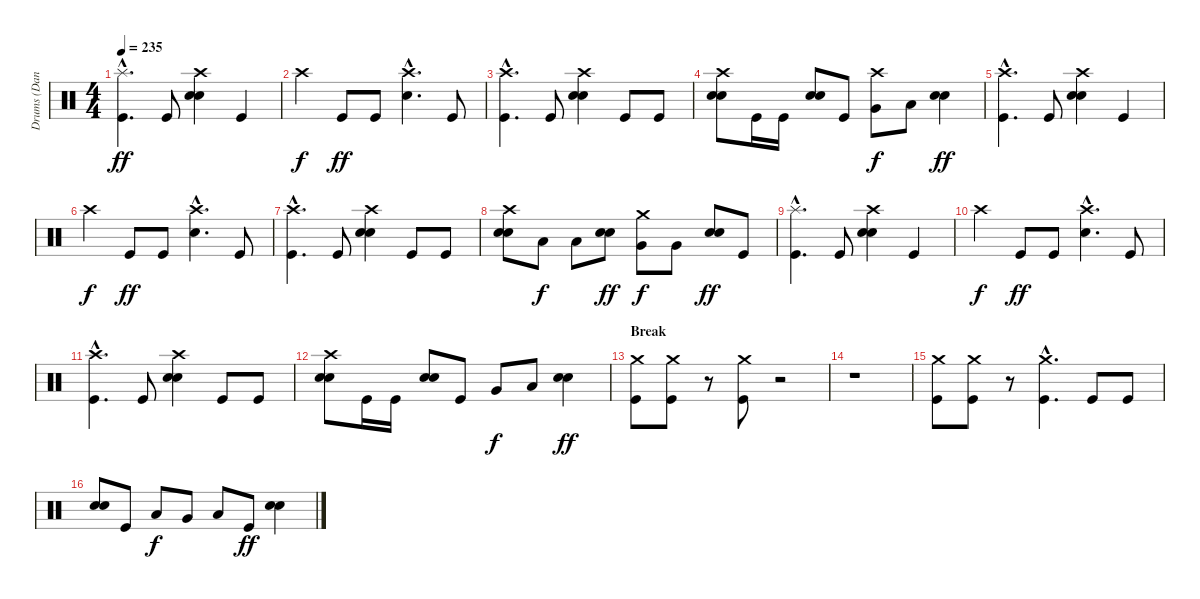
\track ("Drums (Dan)" "Drums (Dan") {instrument percussion}
\staff {score}
\articulation defaults
\ts (4 4)
\tempo 235
\clef neutral
\ks c
("Kick (hit)"{hac} "Splash (hit)"{hac}).4{d dy ff} "Kick (hit)".8 ("Electric Snare (hit)" "Electric Snare (hit)" "Crash high (hit)").4 "Kick (hit)".4 |
"Crash high (hit)".4{dy f} "Kick (hit)".8{dy ff} "Kick (hit)".8 ("Electric Snare (hit)"{hac} "Crash high (hit)"{hac}).4{d} "Kick (hit)".8 |
("Kick (hit)"{hac} "Crash high (hit)"{hac}).4{d} "Kick (hit)".8 ("Electric Snare (hit)" "Electric Snare (hit)" "Crash high (hit)").4 "Kick (hit)".8 "Kick (hit)".8 |
("Electric Snare (hit)" "Electric Snare (hit)" "Crash high (hit)").8 "Kick (hit)".16 "Kick (hit)".16 ("Electric Snare (hit)" "Electric Snare (hit)").8 "Kick (hit)".8 ("Very Low Tom (hit)" "Crash high (hit)").8{dy f} "Low Floor Tom (hit)".8 ("Electric Snare (hit)" "Electric Snare (hit)").4{dy ff} |
("Kick (hit)"{hac} "Crash high (hit)"{hac}).4{d} "Kick (hit)".8 ("Electric Snare (hit)" "Electric Snare (hit)" "Crash high (hit)").4 "Kick (hit)".4 |
"Crash high (hit)".4{dy f} "Kick (hit)".8{dy ff} "Kick (hit)".8 ("Electric Snare (hit)"{hac} "Crash high (hit)"{hac}).4{d} "Kick (hit)".8 |
("Kick (hit)"{hac} "Crash high (hit)"{hac}).4{d} "Kick (hit)".8 ("Electric Snare (hit)" "Electric Snare (hit)" "Crash high (hit)").4 "Kick (hit)".8 "Kick (hit)".8 |
("Electric Snare (hit)" "Electric Snare (hit)" "Crash high (hit)").8 "Low Tom (hit)".8{dy f} "Low Tom (hit)".8 ("Electric Snare (hit)" "Electric Snare (hit)").8{dy ff} ("Very Low Tom (hit)" "Crash medium (hit)").8{dy f} "Very Low Tom (hit)".8 ("Electric Snare (hit)" "Electric Snare (hit)").8{dy ff} "Kick (hit)".8 |
("Kick (hit)"{hac} "Splash (hit)"{hac}).4{d} "Kick (hit)".8 ("Electric Snare (hit)" "Electric Snare (hit)" "Crash high (hit)").4 "Kick (hit)".4 |
"Crash high (hit)".4{dy f} "Kick (hit)".8{dy ff} "Kick (hit)".8 ("Electric Snare (hit)"{hac} "Crash high (hit)"{hac}).4{d} "Kick (hit)".8 |
("Kick (hit)"{hac} "Crash high (hit)"{hac}).4{d} "Kick (hit)".8 ("Electric Snare (hit)" "Electric Snare (hit)" "Crash high (hit)").4 "Kick (hit)".8 "Kick (hit)".8 |
("Electric Snare (hit)" "Electric Snare (hit)" "Crash high (hit)").8 "Kick (hit)".16 "Kick (hit)".16 ("Electric Snare (hit)" "Electric Snare (hit)").8 "Kick (hit)".8 "Very Low Tom (hit)".8{dy f} "Low Floor Tom (hit)".8 ("Electric Snare (hit)" "Electric Snare (hit)").4{dy ff} |
\section ("" "Break")
("Kick (hit)" "Crash medium (hit)").8 ("Kick (hit)" "Crash medium (hit)").8 r.8{volume 5} ("Kick (hit)" "Crash medium (hit)").8{volume 13} r.2 |
r.1 |
("Kick (hit)" "Crash medium (hit)").8 ("Kick (hit)" "Crash medium (hit)").8 r.8{volume 5} ("Kick (hit)"{hac} "Crash medium (hit)"{hac}).4{d volume 13} "Kick (hit)".8 "Kick (hit)".8 |
("Electric Snare (hit)" "Electric Snare (hit)").8 "Kick (hit)".8 "Low Tom (hit)".8{dy f} "Very Low Tom (hit)".8 "Low Floor Tom (hit)".8 "Kick (hit)".8{dy ff} ("Electric Snare (hit)" "Electric Snare (hit)").4
